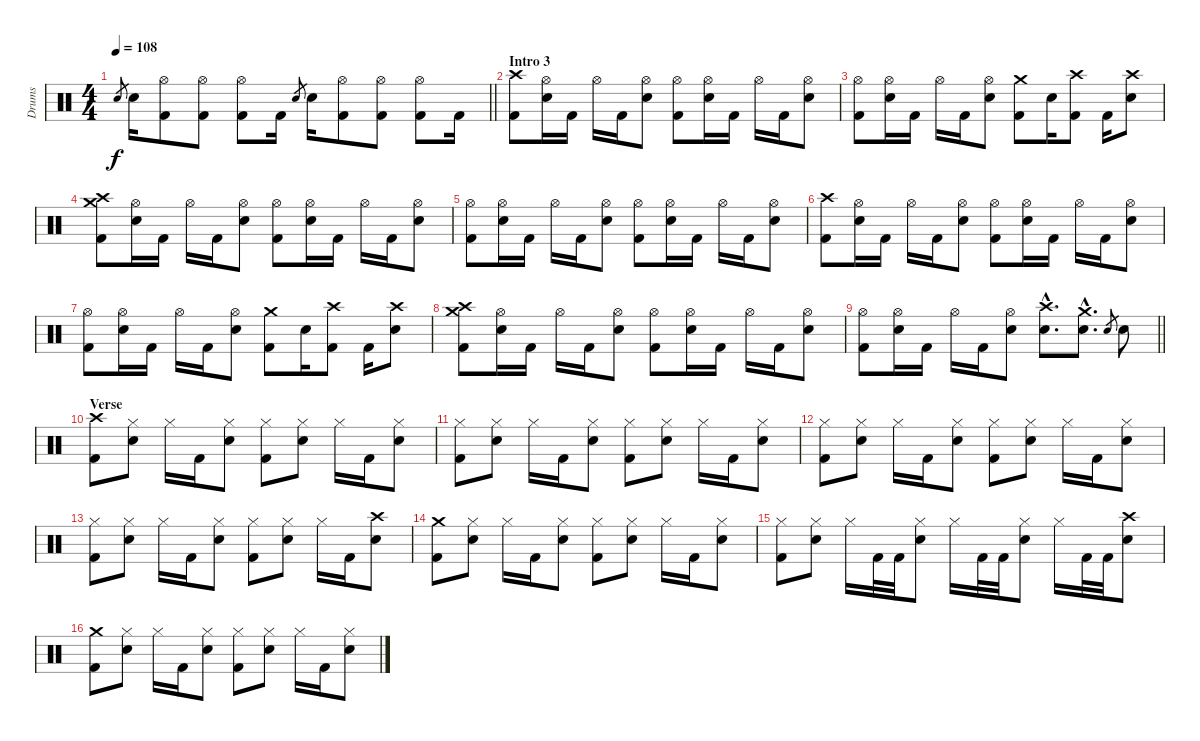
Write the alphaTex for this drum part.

\track ("Drums" "Drums") {instrument percussion}
\staff {score}
\articulation defaults
\ts (4 4)
\tempo 108
\clef neutral
\barLineRight lightlight
\ks c "Snare (hit) 2".8{gr dy f} "Snare (hit) 2".16
("Hi-Hat (open)" "Kick (hit) 2").8 ("Hi-Hat (open)" "Kick (hit) 2").8 ("Hi-Hat (open)" "Kick (hit) 2").8 "Kick (hit) 2".16 "Snare (hit) 2".8{gr} "Snare (hit) 2".16 ("Hi-Hat (open)" "Kick (hit) 2").8 ("Hi-Hat (open)" "Kick (hit) 2").8 ("Hi-Hat (open)" "Kick (hit) 2").8 "Kick (hit) 2".16 |
\section ("" "Intro 3")
("Crash high (hit)" "Kick (hit) 2").8 ("Hi-Hat (open)" "Snare (hit) 2").16 "Kick (hit) 2".16 "Hi-Hat (open)".16 "Kick (hit) 2".16 ("Hi-Hat (open)" "Snare (hit) 2").8 ("Hi-Hat (open)" "Kick (hit) 2").8 ("Hi-Hat (open)" "Snare (hit) 2").16 "Kick (hit) 2".16 "Hi-Hat (open)".16 "Kick (hit) 2".16 ("Hi-Hat (open)" "Snare (hit) 2").8 |
("Hi-Hat (open)" "Kick (hit) 2").8 ("Hi-Hat (open)" "Snare (hit) 2").16 "Kick (hit) 2".16 "Hi-Hat (open)".16 "Kick (hit) 2".16 ("Hi-Hat (open)" "Snare (hit) 2").8 ("Crash medium (hit)" "Kick (hit) 2").8 "Snare (hit) 2".16 ("Crash high (hit)" "Kick (hit) 2").8 "Kick (hit) 2".16 ("Crash high (hit)" "Snare (hit) 2").8 |
("Crash medium (hit)" "Crash high (hit)" "Kick (hit) 2").8 ("Hi-Hat (open)" "Snare (hit) 2").16 "Kick (hit) 2".16 "Hi-Hat (open)".16 "Kick (hit) 2".16 ("Hi-Hat (open)" "Snare (hit) 2").8 ("Hi-Hat (open)" "Kick (hit) 2").8 ("Hi-Hat (open)" "Snare (hit) 2").16 "Kick (hit) 2".16 "Hi-Hat (open)".16 "Kick (hit) 2".16 ("Hi-Hat (open)" "Snare (hit) 2").8 |
("Hi-Hat (open)" "Kick (hit) 2").8 ("Hi-Hat (open)" "Snare (hit) 2").16 "Kick (hit) 2".16 "Hi-Hat (open)".16 "Kick (hit) 2".16 ("Hi-Hat (open)" "Snare (hit) 2").8 ("Hi-Hat (open)" "Kick (hit) 2").8 ("Hi-Hat (open)" "Snare (hit) 2").16 "Kick (hit) 2".16 "Hi-Hat (open)".16 "Kick (hit) 2".16 ("Hi-Hat (open)" "Snare (hit) 2").8 |
("Crash high (hit)" "Kick (hit) 2").8 ("Hi-Hat (open)" "Snare (hit) 2").16 "Kick (hit) 2".16 "Hi-Hat (open)".16 "Kick (hit) 2".16 ("Hi-Hat (open)" "Snare (hit) 2").8 ("Hi-Hat (open)" "Kick (hit) 2").8 ("Hi-Hat (open)" "Snare (hit) 2").16 "Kick (hit) 2".16 "Hi-Hat (open)".16 "Kick (hit) 2".16 ("Hi-Hat (open)" "Snare (hit) 2").8 |
("Hi-Hat (open)" "Kick (hit) 2").8 ("Hi-Hat (open)" "Snare (hit) 2").16 "Kick (hit) 2".16 "Hi-Hat (open)".16 "Kick (hit) 2".16 ("Hi-Hat (open)" "Snare (hit) 2").8 ("Crash medium (hit)" "Kick (hit) 2").8 "Snare (hit) 2".16 ("Crash high (hit)" "Kick (hit) 2").8 "Kick (hit) 2".16 ("Crash high (hit)" "Snare (hit) 2").8 |
("Crash medium (hit)" "Crash high (hit)" "Kick (hit) 2").8 ("Hi-Hat (open)" "Snare (hit) 2").16 "Kick (hit) 2".16 "Hi-Hat (open)".16 "Kick (hit) 2".16 ("Hi-Hat (open)" "Snare (hit) 2").8 ("Hi-Hat (open)" "Kick (hit) 2").8 ("Hi-Hat (open)" "Snare (hit) 2").16 "Kick (hit) 2".16 "Hi-Hat (open)".16 "Kick (hit) 2".16 ("Hi-Hat (open)" "Snare (hit) 2").8 |
\barLineRight lightlight
("Hi-Hat (open)" "Kick (hit) 2").8 ("Hi-Hat (open)" "Snare (hit) 2").16 "Kick (hit) 2".16 "Hi-Hat (open)".16 "Kick (hit) 2".16 ("Hi-Hat (open)" "Snare (hit) 2").8 ("Crash high (hit)"{hac} "Snare (hit) 2"{hac}).8{d} ("Crash medium (hit)"{hac} "Snare (hit) 2"{hac}).8{d} "Snare (hit) 2".8{gr} "Snare (hit) 2".8 |
\section ("" "Verse")
("Crash high (hit)" "Kick (hit) 2").8 ("Hi-Hat (closed)" "Snare (hit) 2").8 "Hi-Hat (closed)".16 "Kick (hit) 2".16 ("Hi-Hat (closed)" "Snare (hit) 2").8 ("Hi-Hat (closed)" "Kick (hit) 2").8 ("Hi-Hat (closed)" "Snare (hit) 2").8 "Hi-Hat (closed)".16 "Kick (hit) 2".16 ("Hi-Hat (closed)" "Snare (hit) 2").8 |
("Hi-Hat (closed)" "Kick (hit) 2").8 ("Hi-Hat (closed)" "Snare (hit) 2").8 "Hi-Hat (closed)".16 "Kick (hit) 2".16 ("Hi-Hat (closed)" "Snare (hit) 2").8 ("Hi-Hat (closed)" "Kick (hit) 2").8 ("Hi-Hat (closed)" "Snare (hit) 2").8 "Hi-Hat (closed)".16 "Kick (hit) 2".16 ("Hi-Hat (closed)" "Snare (hit) 2").8 |
("Hi-Hat (closed)" "Kick (hit) 2").8 ("Hi-Hat (closed)" "Snare (hit) 2").8 "Hi-Hat (closed)".16 "Kick (hit) 2".16 ("Hi-Hat (closed)" "Snare (hit) 2").8 ("Hi-Hat (closed)" "Kick (hit) 2").8 ("Hi-Hat (closed)" "Snare (hit) 2").8 "Hi-Hat (closed)".16 "Kick (hit) 2".16 ("Hi-Hat (closed)" "Snare (hit) 2").8 |
("Hi-Hat (closed)" "Kick (hit) 2").8 ("Hi-Hat (closed)" "Snare (hit) 2").8 "Hi-Hat (closed)".16 "Kick (hit) 2".16 ("Hi-Hat (closed)" "Snare (hit) 2").8 ("Hi-Hat (closed)" "Kick (hit) 2").8 ("Hi-Hat (closed)" "Snare (hit) 2").8 "Hi-Hat (closed)".16 "Kick (hit) 2".16 ("Crash high (hit)" "Snare (hit) 2").8 |
("Crash medium (hit)" "Kick (hit) 2").8 ("Hi-Hat (closed)" "Snare (hit) 2").8 "Hi-Hat (closed)".16 "Kick (hit) 2".16 ("Hi-Hat (closed)" "Snare (hit) 2").8 ("Hi-Hat (closed)" "Kick (hit) 2").8 ("Hi-Hat (closed)" "Snare (hit) 2").8 "Hi-Hat (closed)".16 "Kick (hit) 2".16 ("Hi-Hat (closed)" "Snare (hit) 2").8 |
("Hi-Hat (closed)" "Kick (hit) 2").8 ("Hi-Hat (closed)" "Snare (hit) 2").8 "Hi-Hat (closed)".16 "Kick (hit) 2".32 "Kick (hit) 2".32 ("Hi-Hat (closed)" "Snare (hit) 2").8 "Hi-Hat (closed)".16 "Kick (hit) 2".32 "Kick (hit) 2".32 ("Hi-Hat (closed)" "Snare (hit) 2").8 "Hi-Hat (closed)".16 "Kick (hit) 2".32 "Kick (hit) 2".32 ("Crash high (hit)" "Snare (hit) 2").8 |
("Crash medium (hit)" "Kick (hit) 2").8 ("Hi-Hat (closed)" "Snare (hit) 2").8 "Hi-Hat (closed)".16 "Kick (hit) 2".16 ("Hi-Hat (closed)" "Snare (hit) 2").8 ("Hi-Hat (closed)" "Kick (hit) 2").8 ("Hi-Hat (closed)" "Snare (hit) 2").8 "Hi-Hat (closed)".16 "Kick (hit) 2".16 ("Hi-Hat (closed)" "Snare (hit) 2").8
